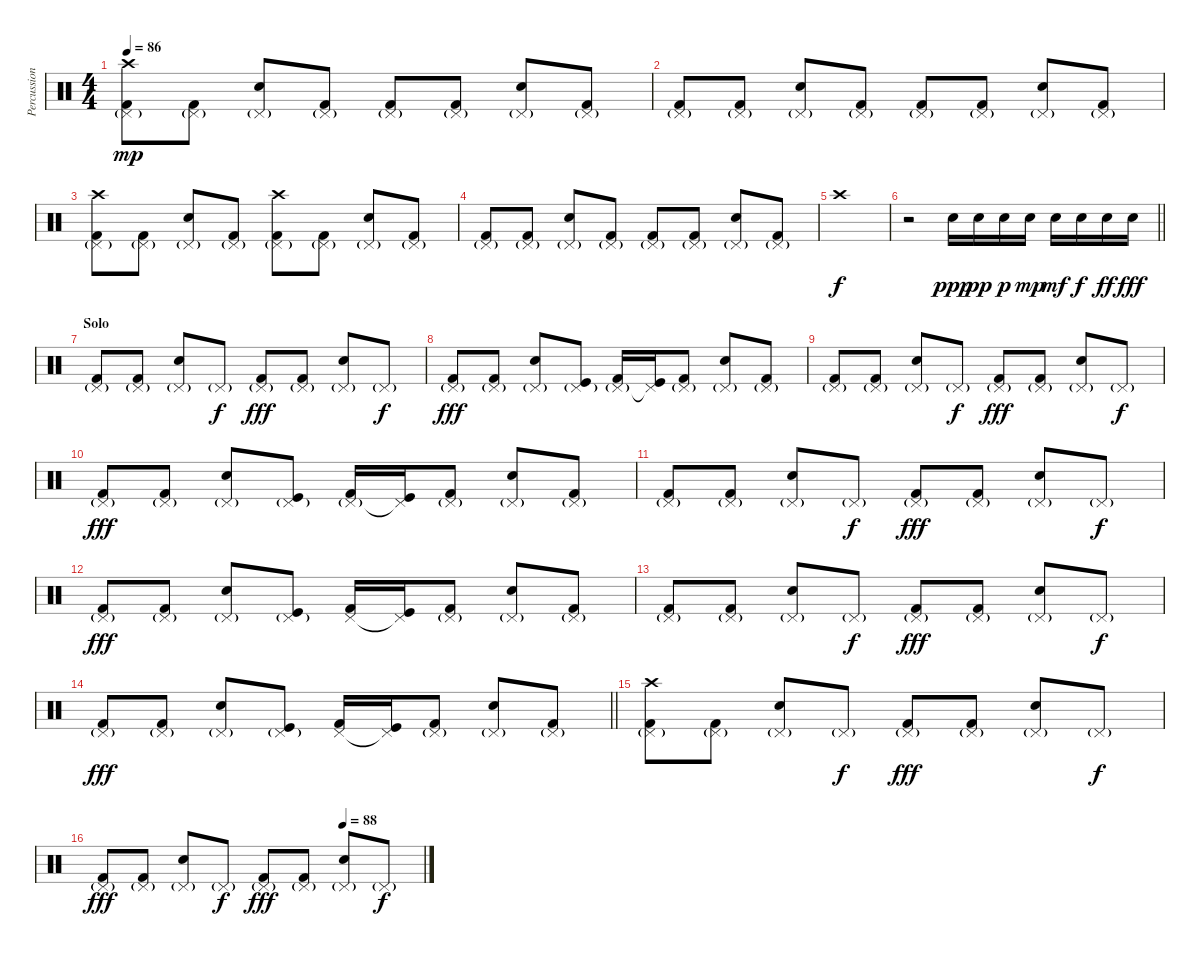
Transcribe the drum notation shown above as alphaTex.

\track ("Percussion" "Percussion") {instrument percussion}
\staff {score}
\articulation defaults
\ts (4 4)
\tempo 86
\clef neutral
\ks c
("Pedal Hi-Hat (hit)"{g} "Kick (hit) 2" "Crash high (hit)").8{dy mp} ("Pedal Hi-Hat (hit)"{g} "Kick (hit) 2").8 ("Pedal Hi-Hat (hit)"{g} "Snare (hit) 2").8 ("Pedal Hi-Hat (hit)"{g} "Kick (hit) 2").8 ("Pedal Hi-Hat (hit)"{g} "Kick (hit) 2").8 ("Pedal Hi-Hat (hit)"{g} "Kick (hit) 2").8 ("Pedal Hi-Hat (hit)"{g} "Snare (hit) 2").8 ("Pedal Hi-Hat (hit)"{g} "Kick (hit) 2").8 |
("Pedal Hi-Hat (hit)"{g} "Kick (hit) 2").8 ("Pedal Hi-Hat (hit)"{g} "Kick (hit) 2").8 ("Pedal Hi-Hat (hit)"{g} "Snare (hit) 2").8 ("Pedal Hi-Hat (hit)"{g} "Kick (hit) 2").8 ("Pedal Hi-Hat (hit)"{g} "Kick (hit) 2").8 ("Pedal Hi-Hat (hit)"{g} "Kick (hit) 2").8 ("Pedal Hi-Hat (hit)"{g} "Snare (hit) 2").8 ("Pedal Hi-Hat (hit)"{g} "Kick (hit) 2").8 |
("Pedal Hi-Hat (hit)"{g} "Kick (hit) 2" "Crash high (hit)").8 ("Pedal Hi-Hat (hit)"{g} "Kick (hit) 2").8 ("Pedal Hi-Hat (hit)"{g} "Snare (hit) 2").8 ("Pedal Hi-Hat (hit)"{g} "Kick (hit) 2").8 ("Pedal Hi-Hat (hit)"{g} "Kick (hit) 2" "Crash high (hit)").8 ("Pedal Hi-Hat (hit)"{g} "Kick (hit) 2").8 ("Pedal Hi-Hat (hit)"{g} "Snare (hit) 2").8 ("Pedal Hi-Hat (hit)"{g} "Kick (hit) 2").8 |
("Pedal Hi-Hat (hit)"{g} "Kick (hit) 2").8 ("Pedal Hi-Hat (hit)"{g} "Kick (hit) 2").8 ("Pedal Hi-Hat (hit)"{g} "Snare (hit) 2").8 ("Pedal Hi-Hat (hit)"{g} "Kick (hit) 2").8 ("Pedal Hi-Hat (hit)"{g} "Kick (hit) 2").8 ("Pedal Hi-Hat (hit)"{g} "Kick (hit) 2").8 ("Pedal Hi-Hat (hit)"{g} "Snare (hit) 2").8 ("Pedal Hi-Hat (hit)"{g} "Kick (hit) 2").8 |
"Crash high (hit)".1{dy f} |
\barLineRight lightlight
r.2 "Snare (hit) 2".16{dy ppp} "Snare (hit) 2".16{dy pp} "Snare (hit) 2".16{dy p} "Snare (hit) 2".16{dy mp} "Snare (hit) 2".16{dy mf} "Snare (hit) 2".16{dy f} "Snare (hit) 2".16{dy ff} "Snare (hit) 2".16{dy fff} |
\section ("" "Solo")
("Pedal Hi-Hat (hit)"{g} "Kick (hit) 2").8 ("Pedal Hi-Hat (hit)"{g} "Kick (hit) 2").8 ("Pedal Hi-Hat (hit)"{g} "Snare (hit) 2").8 "Pedal Hi-Hat (hit)"{g}.8{dy f} ("Pedal Hi-Hat (hit)"{g} "Kick (hit) 2").8{dy fff} ("Pedal Hi-Hat (hit)"{g} "Kick (hit) 2").8 ("Pedal Hi-Hat (hit)"{g} "Snare (hit) 2").8 "Pedal Hi-Hat (hit)"{g}.8{dy f} |
("Pedal Hi-Hat (hit)"{g} "Kick (hit) 2").8{dy fff} ("Pedal Hi-Hat (hit)"{g} "Kick (hit) 2").8 ("Pedal Hi-Hat (hit)"{g} "Snare (hit) 2").8 ("Pedal Hi-Hat (hit)"{g} "Kick (hit)").8 ("Pedal Hi-Hat (hit)"{g} "Kick (hit) 2").16 ("Pedal Hi-Hat (hit)"{t} "Kick (hit)").16 ("Pedal Hi-Hat (hit)"{g} "Kick (hit) 2").8 ("Pedal Hi-Hat (hit)"{g} "Snare (hit) 2").8 ("Pedal Hi-Hat (hit)"{g} "Kick (hit) 2").8 |
("Pedal Hi-Hat (hit)"{g} "Kick (hit) 2").8 ("Pedal Hi-Hat (hit)"{g} "Kick (hit) 2").8 ("Pedal Hi-Hat (hit)"{g} "Snare (hit) 2").8 "Pedal Hi-Hat (hit)"{g}.8{dy f} ("Pedal Hi-Hat (hit)"{g} "Kick (hit) 2").8{dy fff} ("Pedal Hi-Hat (hit)"{g} "Kick (hit) 2").8 ("Pedal Hi-Hat (hit)"{g} "Snare (hit) 2").8 "Pedal Hi-Hat (hit)"{g}.8{dy f} |
("Pedal Hi-Hat (hit)"{g} "Kick (hit) 2").8{dy fff} ("Pedal Hi-Hat (hit)"{g} "Kick (hit) 2").8 ("Pedal Hi-Hat (hit)"{g} "Snare (hit) 2").8 ("Pedal Hi-Hat (hit)"{g} "Kick (hit)").8 ("Pedal Hi-Hat (hit)"{g} "Kick (hit) 2").16 ("Pedal Hi-Hat (hit)"{t} "Kick (hit)").16 ("Pedal Hi-Hat (hit)"{g} "Kick (hit) 2").8 ("Pedal Hi-Hat (hit)"{g} "Snare (hit) 2").8 ("Pedal Hi-Hat (hit)"{g} "Kick (hit) 2").8 |
("Pedal Hi-Hat (hit)"{g} "Kick (hit) 2").8 ("Pedal Hi-Hat (hit)"{g} "Kick (hit) 2").8 ("Pedal Hi-Hat (hit)"{g} "Snare (hit) 2").8 "Pedal Hi-Hat (hit)"{g}.8{dy f} ("Pedal Hi-Hat (hit)"{g} "Kick (hit) 2").8{dy fff} ("Pedal Hi-Hat (hit)"{g} "Kick (hit) 2").8 ("Pedal Hi-Hat (hit)"{g} "Snare (hit) 2").8 "Pedal Hi-Hat (hit)"{g}.8{dy f} |
("Pedal Hi-Hat (hit)"{g} "Kick (hit) 2").8{dy fff} ("Pedal Hi-Hat (hit)"{g} "Kick (hit) 2").8 ("Pedal Hi-Hat (hit)"{g} "Snare (hit) 2").8 ("Pedal Hi-Hat (hit)"{g} "Kick (hit)").8 ("Pedal Hi-Hat (hit)" "Kick (hit) 2").16 ("Pedal Hi-Hat (hit)"{t} "Kick (hit)").16 ("Pedal Hi-Hat (hit)"{g} "Kick (hit) 2").8 ("Pedal Hi-Hat (hit)"{g} "Snare (hit) 2").8 ("Pedal Hi-Hat (hit)"{g} "Kick (hit) 2").8 |
("Pedal Hi-Hat (hit)"{g} "Kick (hit) 2").8 ("Pedal Hi-Hat (hit)"{g} "Kick (hit) 2").8 ("Pedal Hi-Hat (hit)"{g} "Snare (hit) 2").8 "Pedal Hi-Hat (hit)"{g}.8{dy f} ("Pedal Hi-Hat (hit)"{g} "Kick (hit) 2").8{dy fff} ("Pedal Hi-Hat (hit)"{g} "Kick (hit) 2").8 ("Pedal Hi-Hat (hit)"{g} "Snare (hit) 2").8 "Pedal Hi-Hat (hit)"{g}.8{dy f} |
\barLineRight lightlight
("Pedal Hi-Hat (hit)"{g} "Kick (hit) 2").8{dy fff} ("Pedal Hi-Hat (hit)"{g} "Kick (hit) 2").8 ("Pedal Hi-Hat (hit)"{g} "Snare (hit) 2").8 ("Pedal Hi-Hat (hit)"{g} "Kick (hit)").8 ("Pedal Hi-Hat (hit)" "Kick (hit) 2").16 ("Pedal Hi-Hat (hit)"{t} "Kick (hit)").16 ("Pedal Hi-Hat (hit)"{g} "Kick (hit) 2").8 ("Pedal Hi-Hat (hit)"{g} "Snare (hit) 2").8 ("Pedal Hi-Hat (hit)"{g} "Kick (hit) 2").8 |
("Pedal Hi-Hat (hit)"{g} "Kick (hit) 2" "Crash high (hit)").8 ("Pedal Hi-Hat (hit)"{g} "Kick (hit) 2").8 ("Pedal Hi-Hat (hit)"{g} "Snare (hit) 2").8 "Pedal Hi-Hat (hit)"{g}.8{dy f} ("Pedal Hi-Hat (hit)"{g} "Kick (hit) 2").8{dy fff} ("Pedal Hi-Hat (hit)"{g} "Kick (hit) 2").8 ("Pedal Hi-Hat (hit)"{g} "Snare (hit) 2").8 "Pedal Hi-Hat (hit)"{g}.8{dy f} |
\tempo (88 0.75)
("Pedal Hi-Hat (hit)"{g} "Kick (hit) 2").8{dy fff} ("Pedal Hi-Hat (hit)"{g} "Kick (hit) 2").8 ("Pedal Hi-Hat (hit)"{g} "Snare (hit) 2").8 "Pedal Hi-Hat (hit)"{g}.8{dy f} ("Pedal Hi-Hat (hit)"{g} "Kick (hit) 2").8{dy fff} ("Pedal Hi-Hat (hit)"{g} "Kick (hit) 2").8 ("Pedal Hi-Hat (hit)"{g} "Snare (hit) 2").8 "Pedal Hi-Hat (hit)"{g}.8{dy f}
